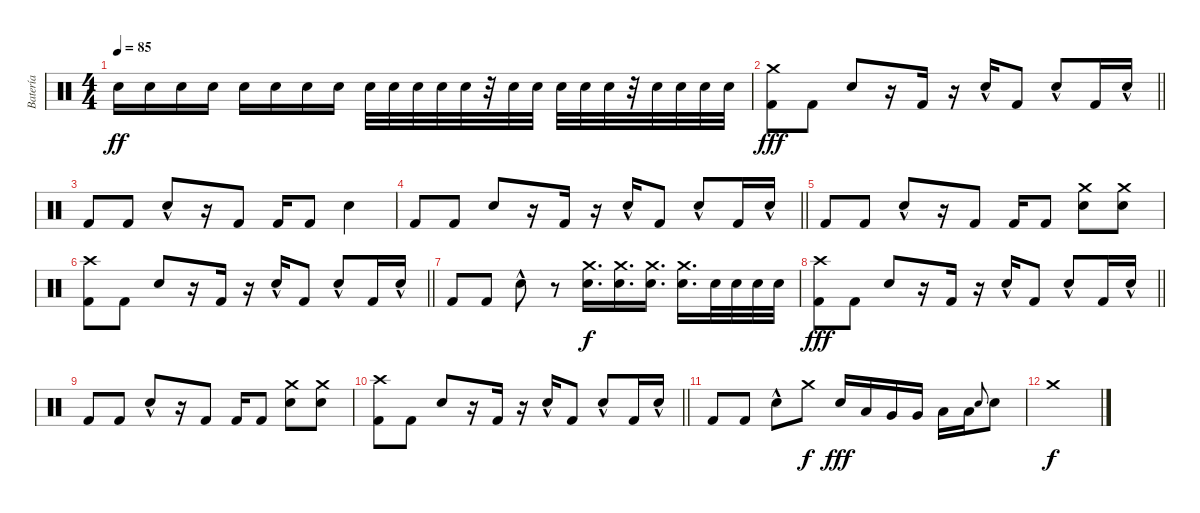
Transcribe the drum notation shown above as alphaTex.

\track ("Batería" "Batería") {instrument percussion}
\staff {score}
\articulation defaults
\ts (4 4)
\tempo 85
\clef neutral
\ks c "Electric Snare (hit)".16{dy ff} "Electric Snare (hit)".16 "Electric Snare (hit)".16 "Electric Snare (hit)".16 "Electric Snare (hit)".16 "Electric Snare (hit)".16 "Electric Snare (hit)".16 "Electric Snare (hit)".16 "Electric Snare (hit)".32 "Electric Snare (hit)".32 "Electric Snare (hit)".32 "Electric Snare (hit)".32 "Electric Snare (hit)".32
r.32 "Electric Snare (hit)".32 "Electric Snare (hit)".32 "Electric Snare (hit)".32 "Electric Snare (hit)".32 "Electric Snare (hit)".32 r.32 "Electric Snare (hit)".32 "Electric Snare (hit)".32 "Electric Snare (hit)".32 "Electric Snare (hit)".32 |
\barLineRight lightlight
("Kick (hit) 2" "Crash medium (hit)").8{dy fff} "Kick (hit) 2".8 "Electric Snare (hit)".8 r.16 "Kick (hit) 2".16 r.16 "Electric Snare (hit)"{hac}.16 "Kick (hit) 2".8 "Electric Snare (hit)"{hac}.8 "Kick (hit) 2".16 "Electric Snare (hit)"{hac}.16 |
"Kick (hit) 2".8 "Kick (hit) 2".8 "Electric Snare (hit)"{hac}.8 r.16 "Kick (hit) 2".8 "Kick (hit) 2".16 "Kick (hit) 2".8 "Electric Snare (hit)".4 |
\barLineRight lightlight "Kick (hit) 2".8 "Kick (hit) 2".8 "Electric Snare (hit)".8
r.16 "Kick (hit) 2".16 r.16 "Electric Snare (hit)"{hac}.16 "Kick (hit) 2".8 "Electric Snare (hit)"{hac}.8 "Kick (hit) 2".16 "Electric Snare (hit)"{hac}.16 |
"Kick (hit) 2".8 "Kick (hit) 2".8 "Electric Snare (hit)"{hac}.8 r.16 "Kick (hit) 2".8 "Kick (hit) 2".16 "Kick (hit) 2".8 ("Electric Snare (hit)" "Crash medium (hit)").8 ("Electric Snare (hit)" "Crash medium (hit)").8 |
\barLineRight lightlight
("Kick (hit) 2" "Crash high (hit)").8 "Kick (hit) 2".8 "Electric Snare (hit)".8 r.16 "Kick (hit) 2".16 r.16 "Electric Snare (hit)"{hac}.16 "Kick (hit) 2".8 "Electric Snare (hit)"{hac}.8 "Kick (hit) 2".16 "Electric Snare (hit)"{hac}.16 |
"Kick (hit) 2".8 "Kick (hit) 2".8 "Electric Snare (hit)"{hac}.8 r.8 ("Electric Snare (hit)" "Crash medium (hit)").16{d dy f} ("Electric Snare (hit)" "Crash medium (hit)").16{d} ("Electric Snare (hit)" "Crash medium (hit)").16{d} ("Electric Snare (hit)" "Crash medium (hit)").16{d} "Electric Snare (hit)".32 "Electric Snare (hit)".32 "Electric Snare (hit)".32 "Electric Snare (hit)".32 |
\barLineRight lightlight
("Kick (hit) 2" "Crash high (hit)").8{dy fff} "Kick (hit) 2".8 "Electric Snare (hit)".8 r.16 "Kick (hit) 2".16 r.16 "Electric Snare (hit)"{hac}.16 "Kick (hit) 2".8 "Electric Snare (hit)"{hac}.8 "Kick (hit) 2".16 "Electric Snare (hit)"{hac}.16 |
"Kick (hit) 2".8 "Kick (hit) 2".8 "Electric Snare (hit)"{hac}.8 r.16 "Kick (hit) 2".8 "Kick (hit) 2".16 "Kick (hit) 2".8 ("Electric Snare (hit)" "Crash medium (hit)").8 ("Electric Snare (hit)" "Crash medium (hit)").8 |
\barLineRight lightlight
("Kick (hit) 2" "Crash high (hit)").8 "Kick (hit) 2".8 "Electric Snare (hit)".8 r.16 "Kick (hit) 2".16 r.16 "Electric Snare (hit)"{hac}.16 "Kick (hit) 2".8 "Electric Snare (hit)"{hac}.8 "Kick (hit) 2".16 "Electric Snare (hit)"{hac}.16 |
"Kick (hit) 2".8 "Kick (hit) 2".8 "Electric Snare (hit)"{hac}.8 "Crash medium (hit)".8{dy f} "Electric Snare (hit)".16{dy fff} "Low Tom (hit)".16 "Very Low Tom (hit)".16 "Very Low Tom (hit)".16 "Low Floor Tom (hit)".16 "Low Floor Tom (hit)".16 "Electric Snare (hit)".8{gr onbeat} "Electric Snare (hit)".8 |
"Crash medium (hit)".1{dy f}
